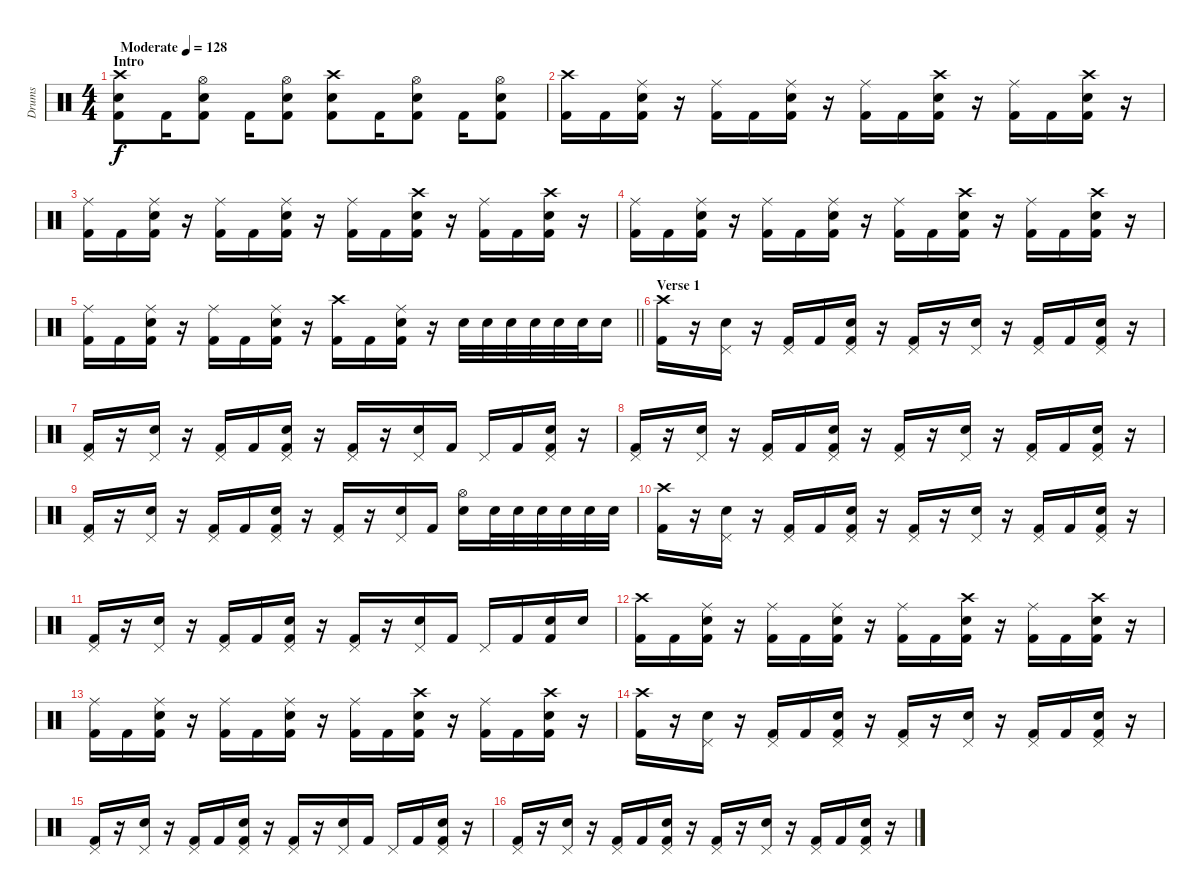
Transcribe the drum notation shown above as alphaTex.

\track ("Drums" "Drums") {instrument percussion}
\staff {score}
\articulation defaults
\ts (4 4)
\section ("" "Intro")
\tempo (128 "Moderate")
\clef neutral
\ks c
("Crash high (hit)" "Snare (hit) 2" "Kick (hit) 2").8{dy f} "Kick (hit) 2".16 ("Hi-Hat (open)" "Snare (hit) 2" "Kick (hit) 2").8 "Kick (hit) 2".16 ("Hi-Hat (open)" "Snare (hit) 2" "Kick (hit) 2").8 ("Crash high (hit)" "Snare (hit) 2" "Kick (hit) 2").8 "Kick (hit) 2".16 ("Hi-Hat (open)" "Snare (hit) 2" "Kick (hit) 2").8 "Kick (hit) 2".16 ("Hi-Hat (open)" "Snare (hit) 2" "Kick (hit) 2").8 |
("Crash high (hit)" "Kick (hit) 2").16 "Kick (hit) 2".16 ("Ride (middle)" "Snare (hit) 2" "Kick (hit) 2").16 r.16 ("Ride (middle)" "Kick (hit) 2").16 "Kick (hit) 2".16 ("Ride (middle)" "Snare (hit) 2" "Kick (hit) 2").16 r.16 ("Ride (middle)" "Kick (hit) 2").16 "Kick (hit) 2".16 ("Crash high (hit)" "Snare (hit) 2" "Kick (hit) 2").16 r.16 ("Ride (middle)" "Kick (hit) 2").16 "Kick (hit) 2".16 ("Crash high (hit)" "Snare (hit) 2" "Kick (hit) 2").16 r.16 |
("Ride (middle)" "Kick (hit) 2").16 "Kick (hit) 2".16 ("Ride (middle)" "Snare (hit) 2" "Kick (hit) 2").16 r.16 ("Ride (middle)" "Kick (hit) 2").16 "Kick (hit) 2".16 ("Ride (middle)" "Snare (hit) 2" "Kick (hit) 2").16 r.16 ("Ride (middle)" "Kick (hit) 2").16 "Kick (hit) 2".16 ("Crash high (hit)" "Snare (hit) 2" "Kick (hit) 2").16 r.16 ("Ride (middle)" "Kick (hit) 2").16 "Kick (hit) 2".16 ("Crash high (hit)" "Snare (hit) 2" "Kick (hit) 2").16 r.16 |
("Ride (middle)" "Kick (hit) 2").16 "Kick (hit) 2".16 ("Ride (middle)" "Snare (hit) 2" "Kick (hit) 2").16 r.16 ("Ride (middle)" "Kick (hit) 2").16 "Kick (hit) 2".16 ("Ride (middle)" "Snare (hit) 2" "Kick (hit) 2").16 r.16 ("Ride (middle)" "Kick (hit) 2").16 "Kick (hit) 2".16 ("Crash high (hit)" "Snare (hit) 2" "Kick (hit) 2").16 r.16 ("Ride (middle)" "Kick (hit) 2").16 "Kick (hit) 2".16 ("Crash high (hit)" "Snare (hit) 2" "Kick (hit) 2").16 r.16 |
\barLineRight lightlight
("Ride (middle)" "Kick (hit) 2").16 "Kick (hit) 2".16 ("Ride (middle)" "Snare (hit) 2" "Kick (hit) 2").16 r.16 ("Ride (middle)" "Kick (hit) 2").16 "Kick (hit) 2".16 ("Ride (middle)" "Snare (hit) 2" "Kick (hit) 2").16 r.16 ("Crash high (hit)" "Kick (hit) 2").16 "Kick (hit) 2".16 ("Ride (middle)" "Snare (hit) 2" "Kick (hit) 2").16 r.16 "Snare (hit) 2".32 "Snare (hit) 2".32 "Snare (hit) 2".32 "Snare (hit) 2".32 "Snare (hit) 2".32 "Snare (hit) 2".32 "Snare (hit) 2".16 |
\section ("" "Verse 1")
("Crash high (hit)" "Kick (hit) 2").16 r.16 ("Pedal Hi-Hat (hit)" "Snare (hit) 2").16 r.16 ("Pedal Hi-Hat (hit)" "Kick (hit) 2").16 "Kick (hit) 2".16 ("Pedal Hi-Hat (hit)" "Snare (hit) 2" "Kick (hit) 2").16 r.16 ("Pedal Hi-Hat (hit)" "Kick (hit) 2").16 r.16 ("Pedal Hi-Hat (hit)" "Snare (hit) 2").16 r.16 ("Pedal Hi-Hat (hit)" "Kick (hit) 2").16 "Kick (hit) 2".16 ("Pedal Hi-Hat (hit)" "Snare (hit) 2" "Kick (hit) 2").16 r.16 |
("Pedal Hi-Hat (hit)" "Kick (hit) 2").16 r.16 ("Pedal Hi-Hat (hit)" "Snare (hit) 2").16 r.16 ("Pedal Hi-Hat (hit)" "Kick (hit) 2").16 "Kick (hit) 2".16 ("Pedal Hi-Hat (hit)" "Snare (hit) 2" "Kick (hit) 2").16 r.16 ("Pedal Hi-Hat (hit)" "Kick (hit) 2").16 r.16 ("Pedal Hi-Hat (hit)" "Snare (hit) 2").16 "Kick (hit) 2".16 "Pedal Hi-Hat (hit)".16 "Kick (hit) 2".16 ("Pedal Hi-Hat (hit)" "Snare (hit) 2" "Kick (hit) 2").16 r.16 |
("Pedal Hi-Hat (hit)" "Kick (hit) 2").16 r.16 ("Pedal Hi-Hat (hit)" "Snare (hit) 2").16 r.16 ("Pedal Hi-Hat (hit)" "Kick (hit) 2").16 "Kick (hit) 2".16 ("Pedal Hi-Hat (hit)" "Snare (hit) 2" "Kick (hit) 2").16 r.16 ("Pedal Hi-Hat (hit)" "Kick (hit) 2").16 r.16 ("Pedal Hi-Hat (hit)" "Snare (hit) 2").16 r.16 ("Pedal Hi-Hat (hit)" "Kick (hit) 2").16 "Kick (hit) 2".16 ("Pedal Hi-Hat (hit)" "Snare (hit) 2" "Kick (hit) 2").16 r.16 |
("Pedal Hi-Hat (hit)" "Kick (hit) 2").16 r.16 ("Pedal Hi-Hat (hit)" "Snare (hit) 2").16 r.16 ("Pedal Hi-Hat (hit)" "Kick (hit) 2").16 "Kick (hit) 2".16 ("Pedal Hi-Hat (hit)" "Snare (hit) 2" "Kick (hit) 2").16 r.16 ("Pedal Hi-Hat (hit)" "Kick (hit) 2").16 r.16 ("Pedal Hi-Hat (hit)" "Snare (hit) 2").16 "Kick (hit) 2".16 ("Hi-Hat (open)" "Snare (hit) 2").16 "Snare (hit) 2".32 "Snare (hit) 2".32 "Snare (hit) 2".32 "Snare (hit) 2".32 "Snare (hit) 2".32 "Snare (hit) 2".32 |
("Crash high (hit)" "Kick (hit) 2").16 r.16 ("Pedal Hi-Hat (hit)" "Snare (hit) 2").16 r.16 ("Pedal Hi-Hat (hit)" "Kick (hit) 2").16 "Kick (hit) 2".16 ("Pedal Hi-Hat (hit)" "Snare (hit) 2" "Kick (hit) 2").16 r.16 ("Pedal Hi-Hat (hit)" "Kick (hit) 2").16 r.16 ("Pedal Hi-Hat (hit)" "Snare (hit) 2").16 r.16 ("Pedal Hi-Hat (hit)" "Kick (hit) 2").16 "Kick (hit) 2".16 ("Pedal Hi-Hat (hit)" "Snare (hit) 2" "Kick (hit) 2").16 r.16 |
("Pedal Hi-Hat (hit)" "Kick (hit) 2").16 r.16 ("Pedal Hi-Hat (hit)" "Snare (hit) 2").16 r.16 ("Pedal Hi-Hat (hit)" "Kick (hit) 2").16 "Kick (hit) 2".16 ("Pedal Hi-Hat (hit)" "Snare (hit) 2" "Kick (hit) 2").16 r.16 ("Pedal Hi-Hat (hit)" "Kick (hit) 2").16 r.16 ("Pedal Hi-Hat (hit)" "Snare (hit) 2").16 "Kick (hit) 2".16 "Pedal Hi-Hat (hit)".16 "Kick (hit) 2".16 ("Snare (hit) 2" "Kick (hit) 2").16 "Snare (hit) 2".16 |
("Crash high (hit)" "Kick (hit) 2").16 "Kick (hit) 2".16 ("Ride (middle)" "Snare (hit) 2" "Kick (hit) 2").16 r.16 ("Ride (middle)" "Kick (hit) 2").16 "Kick (hit) 2".16 ("Ride (middle)" "Snare (hit) 2" "Kick (hit) 2").16 r.16 ("Ride (middle)" "Kick (hit) 2").16 "Kick (hit) 2".16 ("Crash high (hit)" "Snare (hit) 2" "Kick (hit) 2").16 r.16 ("Ride (middle)" "Kick (hit) 2").16 "Kick (hit) 2".16 ("Crash high (hit)" "Snare (hit) 2" "Kick (hit) 2").16 r.16 |
("Ride (middle)" "Kick (hit) 2").16 "Kick (hit) 2".16 ("Ride (middle)" "Snare (hit) 2" "Kick (hit) 2").16 r.16 ("Ride (middle)" "Kick (hit) 2").16 "Kick (hit) 2".16 ("Ride (middle)" "Snare (hit) 2" "Kick (hit) 2").16 r.16 ("Ride (middle)" "Kick (hit) 2").16 "Kick (hit) 2".16 ("Crash high (hit)" "Snare (hit) 2" "Kick (hit) 2").16 r.16 ("Ride (middle)" "Kick (hit) 2").16 "Kick (hit) 2".16 ("Crash high (hit)" "Snare (hit) 2" "Kick (hit) 2").16 r.16 |
("Crash high (hit)" "Kick (hit) 2").16 r.16 ("Pedal Hi-Hat (hit)" "Snare (hit) 2").16 r.16 ("Pedal Hi-Hat (hit)" "Kick (hit) 2").16 "Kick (hit) 2".16 ("Pedal Hi-Hat (hit)" "Snare (hit) 2" "Kick (hit) 2").16 r.16 ("Pedal Hi-Hat (hit)" "Kick (hit) 2").16 r.16 ("Pedal Hi-Hat (hit)" "Snare (hit) 2").16 r.16 ("Pedal Hi-Hat (hit)" "Kick (hit) 2").16 "Kick (hit) 2".16 ("Pedal Hi-Hat (hit)" "Snare (hit) 2" "Kick (hit) 2").16 r.16 |
("Pedal Hi-Hat (hit)" "Kick (hit) 2").16 r.16 ("Pedal Hi-Hat (hit)" "Snare (hit) 2").16 r.16 ("Pedal Hi-Hat (hit)" "Kick (hit) 2").16 "Kick (hit) 2".16 ("Pedal Hi-Hat (hit)" "Snare (hit) 2" "Kick (hit) 2").16 r.16 ("Pedal Hi-Hat (hit)" "Kick (hit) 2").16 r.16 ("Pedal Hi-Hat (hit)" "Snare (hit) 2").16 "Kick (hit) 2".16 "Pedal Hi-Hat (hit)".16 "Kick (hit) 2".16 ("Pedal Hi-Hat (hit)" "Snare (hit) 2" "Kick (hit) 2").16 r.16 |
("Pedal Hi-Hat (hit)" "Kick (hit) 2").16 r.16 ("Pedal Hi-Hat (hit)" "Snare (hit) 2").16 r.16 ("Pedal Hi-Hat (hit)" "Kick (hit) 2").16 "Kick (hit) 2".16 ("Pedal Hi-Hat (hit)" "Snare (hit) 2" "Kick (hit) 2").16 r.16 ("Pedal Hi-Hat (hit)" "Kick (hit) 2").16 r.16 ("Pedal Hi-Hat (hit)" "Snare (hit) 2").16 r.16 ("Pedal Hi-Hat (hit)" "Kick (hit) 2").16 "Kick (hit) 2".16 ("Pedal Hi-Hat (hit)" "Snare (hit) 2" "Kick (hit) 2").16 r.16
